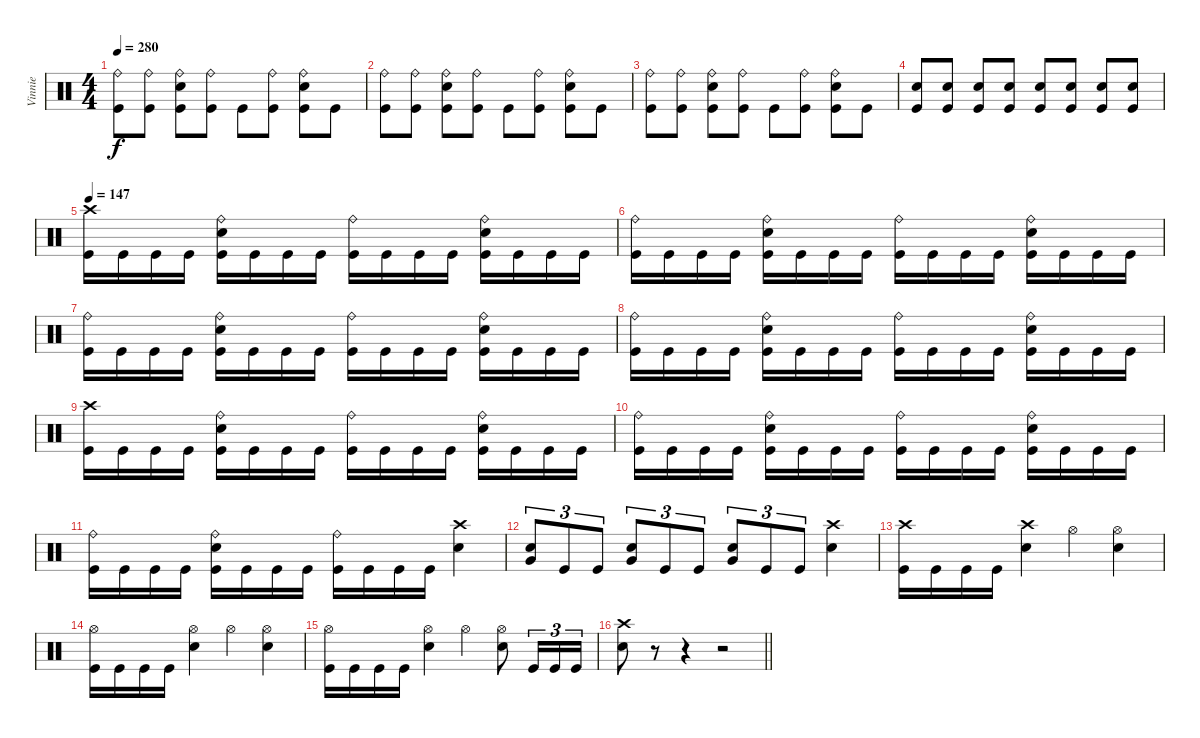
\track ("Vinnie" "Vinnie") {instrument percussion}
\staff {score}
\articulation defaults
\ts (4 4)
\tempo 280
\clef neutral
\ks c
("Ride (bell)" "Kick (hit)").8{dy f} ("Ride (bell)" "Kick (hit)").8 ("Ride (bell)" "Electric Snare (hit)" "Kick (hit)").8 ("Ride (bell)" "Kick (hit)").8 "Kick (hit)".8 ("Ride (bell)" "Kick (hit)").8 ("Ride (bell)" "Electric Snare (hit)" "Kick (hit)").8 "Kick (hit)".8 |
("Ride (bell)" "Kick (hit)").8 ("Ride (bell)" "Kick (hit)").8 ("Ride (bell)" "Electric Snare (hit)" "Kick (hit)").8 ("Ride (bell)" "Kick (hit)").8 "Kick (hit)".8 ("Ride (bell)" "Kick (hit)").8 ("Ride (bell)" "Electric Snare (hit)" "Kick (hit)").8 "Kick (hit)".8 |
("Ride (bell)" "Kick (hit)").8 ("Ride (bell)" "Kick (hit)").8 ("Ride (bell)" "Electric Snare (hit)" "Kick (hit)").8 ("Ride (bell)" "Kick (hit)").8 "Kick (hit)".8 ("Ride (bell)" "Kick (hit)").8 ("Ride (bell)" "Electric Snare (hit)" "Kick (hit)").8 "Kick (hit)".8 |
("Electric Snare (hit)" "Kick (hit)").8 ("Electric Snare (hit)" "Kick (hit)").8 ("Electric Snare (hit)" "Kick (hit)").8 ("Electric Snare (hit)" "Kick (hit)").8 ("Electric Snare (hit)" "Kick (hit)").8 ("Electric Snare (hit)" "Kick (hit)").8 ("Electric Snare (hit)" "Kick (hit)").8 ("Electric Snare (hit)" "Kick (hit)").8 |
\tempo 140
\tempo 147
("Crash high (hit)" "Kick (hit)").16 "Kick (hit)".16 "Kick (hit)".16 "Kick (hit)".16 ("Ride (bell)" "Electric Snare (hit)" "Kick (hit)").16 "Kick (hit)".16 "Kick (hit)".16 "Kick (hit)".16 ("Ride (bell)" "Kick (hit)").16 "Kick (hit)".16 "Kick (hit)".16 "Kick (hit)".16 ("Ride (bell)" "Electric Snare (hit)" "Kick (hit)").16 "Kick (hit)".16 "Kick (hit)".16 "Kick (hit)".16 |
("Ride (bell)" "Kick (hit)").16 "Kick (hit)".16 "Kick (hit)".16 "Kick (hit)".16 ("Ride (bell)" "Electric Snare (hit)" "Kick (hit)").16 "Kick (hit)".16 "Kick (hit)".16 "Kick (hit)".16 ("Ride (bell)" "Kick (hit)").16 "Kick (hit)".16 "Kick (hit)".16 "Kick (hit)".16 ("Ride (bell)" "Electric Snare (hit)" "Kick (hit)").16 "Kick (hit)".16 "Kick (hit)".16 "Kick (hit)".16 |
("Ride (bell)" "Kick (hit)").16 "Kick (hit)".16 "Kick (hit)".16 "Kick (hit)".16 ("Ride (bell)" "Electric Snare (hit)" "Kick (hit)").16 "Kick (hit)".16 "Kick (hit)".16 "Kick (hit)".16 ("Ride (bell)" "Kick (hit)").16 "Kick (hit)".16 "Kick (hit)".16 "Kick (hit)".16 ("Ride (bell)" "Electric Snare (hit)" "Kick (hit)").16 "Kick (hit)".16 "Kick (hit)".16 "Kick (hit)".16 |
("Ride (bell)" "Kick (hit)").16 "Kick (hit)".16 "Kick (hit)".16 "Kick (hit)".16 ("Ride (bell)" "Electric Snare (hit)" "Kick (hit)").16 "Kick (hit)".16 "Kick (hit)".16 "Kick (hit)".16 ("Ride (bell)" "Kick (hit)").16 "Kick (hit)".16 "Kick (hit)".16 "Kick (hit)".16 ("Ride (bell)" "Electric Snare (hit)" "Kick (hit)").16 "Kick (hit)".16 "Kick (hit)".16 "Kick (hit)".16 |
("Crash high (hit)" "Kick (hit)").16 "Kick (hit)".16 "Kick (hit)".16 "Kick (hit)".16 ("Ride (bell)" "Electric Snare (hit)" "Kick (hit)").16 "Kick (hit)".16 "Kick (hit)".16 "Kick (hit)".16 ("Ride (bell)" "Kick (hit)").16 "Kick (hit)".16 "Kick (hit)".16 "Kick (hit)".16 ("Ride (bell)" "Electric Snare (hit)" "Kick (hit)").16 "Kick (hit)".16 "Kick (hit)".16 "Kick (hit)".16 |
("Ride (bell)" "Kick (hit)").16 "Kick (hit)".16 "Kick (hit)".16 "Kick (hit)".16 ("Ride (bell)" "Electric Snare (hit)" "Kick (hit)").16 "Kick (hit)".16 "Kick (hit)".16 "Kick (hit)".16 ("Ride (bell)" "Kick (hit)").16 "Kick (hit)".16 "Kick (hit)".16 "Kick (hit)".16 ("Ride (bell)" "Electric Snare (hit)" "Kick (hit)").16 "Kick (hit)".16 "Kick (hit)".16 "Kick (hit)".16 |
("Ride (bell)" "Kick (hit)").16 "Kick (hit)".16 "Kick (hit)".16 "Kick (hit)".16 ("Ride (bell)" "Electric Snare (hit)" "Kick (hit)").16 "Kick (hit)".16 "Kick (hit)".16 "Kick (hit)".16 ("Ride (bell)" "Kick (hit)").16 "Kick (hit)".16 "Kick (hit)".16 "Kick (hit)".16 ("Crash high (hit)" "Electric Snare (hit)").4 |
("Electric Snare (hit)" "Very Low Tom (hit)").8{tu (3 2)} "Kick (hit)".8{tu (3 2)} "Kick (hit)".8{tu (3 2)} ("Electric Snare (hit)" "Very Low Tom (hit)").8{tu (3 2)} "Kick (hit)".8{tu (3 2)} "Kick (hit)".8{tu (3 2)} ("Electric Snare (hit)" "Very Low Tom (hit)").8{tu (3 2)} "Kick (hit)".8{tu (3 2)} "Kick (hit)".8{tu (3 2)} ("Crash high (hit)" "Electric Snare (hit)").4 |
("Crash high (hit)" "Kick (hit)").16 "Kick (hit)".16 "Kick (hit)".16 "Kick (hit)".16 ("Crash high (hit)" "Electric Snare (hit)").4 "Hi-Hat (open)".4 ("Hi-Hat (open)" "Electric Snare (hit)").4 |
("Hi-Hat (open)" "Kick (hit)").16 "Kick (hit)".16 "Kick (hit)".16 "Kick (hit)".16 ("Hi-Hat (open)" "Electric Snare (hit)").4 "Hi-Hat (open)".4 ("Hi-Hat (open)" "Electric Snare (hit)").4 |
("Hi-Hat (open)" "Kick (hit)").16 "Kick (hit)".16 "Kick (hit)".16 "Kick (hit)".16 ("Hi-Hat (open)" "Electric Snare (hit)").4 "Hi-Hat (open)".4 ("Hi-Hat (open)" "Electric Snare (hit)").8 "Kick (hit)".16{tu (3 2)} "Kick (hit)".16{tu (3 2)} "Kick (hit)".16{tu (3 2)} |
\barLineRight lightlight
("Crash high (hit)" "Electric Snare (hit)").8 r.8{volume 0} r.4 r.2
